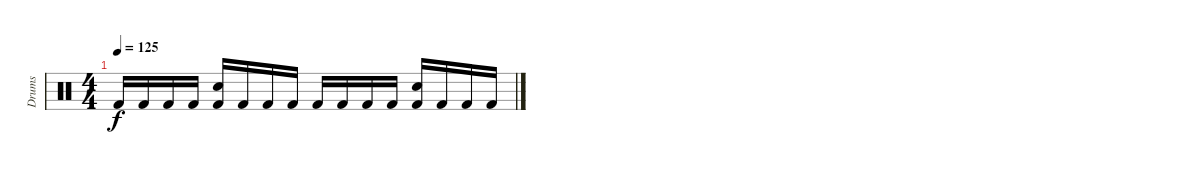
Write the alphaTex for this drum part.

\track ("Drums" "Drums") {instrument percussion}
\staff {score}
\articulation defaults
\ts (4 4)
\tempo 125
\clef neutral
\ks c "Kick (hit) 2".16{dy f} "Kick (hit) 2".16 "Kick (hit) 2".16 "Kick (hit) 2".16
("Electric Snare (hit)" "Kick (hit) 2").16 "Kick (hit) 2".16 "Kick (hit) 2".16 "Kick (hit) 2".16 "Kick (hit) 2".16 "Kick (hit) 2".16 "Kick (hit) 2".16 "Kick (hit) 2".16 ("Electric Snare (hit)" "Kick (hit) 2").16 "Kick (hit) 2".16 "Kick (hit) 2".16 "Kick (hit) 2".16
